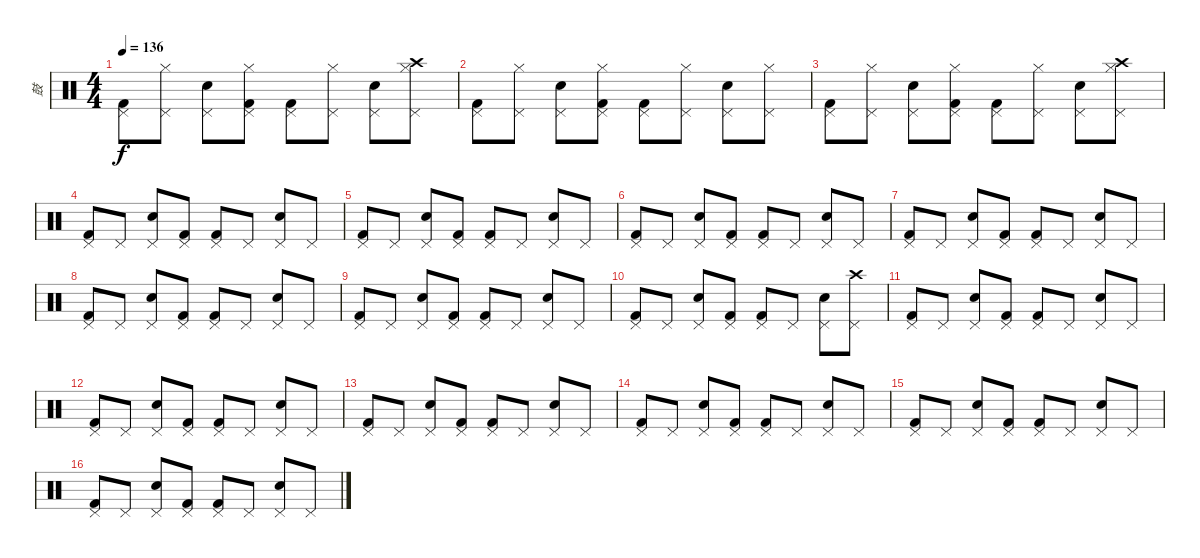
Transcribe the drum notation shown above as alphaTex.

\track ("鼓" "鼓") {instrument percussion}
\staff {score}
\articulation defaults
\ts (4 4)
\tempo 136
\clef neutral
\ks c
("Pedal Hi-Hat (hit)" "Kick (hit) 2").8{dy f} ("Pedal Hi-Hat (hit)" "Hi-Hat (closed)").8 ("Pedal Hi-Hat (hit)" "Electric Snare (hit)").8 ("Pedal Hi-Hat (hit)" "Hi-Hat (closed)" "Kick (hit) 2").8 ("Pedal Hi-Hat (hit)" "Kick (hit) 2").8 ("Pedal Hi-Hat (hit)" "Hi-Hat (closed)").8 ("Pedal Hi-Hat (hit)" "Electric Snare (hit)").8 ("Pedal Hi-Hat (hit)" "Hi-Hat (closed)" "Crash high (hit)").8 |
("Pedal Hi-Hat (hit)" "Kick (hit) 2").8 ("Pedal Hi-Hat (hit)" "Hi-Hat (closed)").8 ("Pedal Hi-Hat (hit)" "Electric Snare (hit)").8 ("Pedal Hi-Hat (hit)" "Hi-Hat (closed)" "Kick (hit) 2").8 ("Pedal Hi-Hat (hit)" "Kick (hit) 2").8 ("Pedal Hi-Hat (hit)" "Hi-Hat (closed)").8 ("Pedal Hi-Hat (hit)" "Electric Snare (hit)").8 ("Pedal Hi-Hat (hit)" "Hi-Hat (closed)").8 |
("Pedal Hi-Hat (hit)" "Kick (hit) 2").8 ("Pedal Hi-Hat (hit)" "Hi-Hat (closed)").8 ("Pedal Hi-Hat (hit)" "Electric Snare (hit)").8 ("Pedal Hi-Hat (hit)" "Hi-Hat (closed)" "Kick (hit) 2").8 ("Pedal Hi-Hat (hit)" "Kick (hit) 2").8 ("Pedal Hi-Hat (hit)" "Hi-Hat (closed)").8 ("Pedal Hi-Hat (hit)" "Electric Snare (hit)").8 ("Pedal Hi-Hat (hit)" "Hi-Hat (closed)" "Crash high (hit)").8 |
("Pedal Hi-Hat (hit)" "Kick (hit) 2").8 "Pedal Hi-Hat (hit)".8 ("Pedal Hi-Hat (hit)" "Electric Snare (hit)").8 ("Pedal Hi-Hat (hit)" "Kick (hit) 2").8 ("Pedal Hi-Hat (hit)" "Kick (hit) 2").8 "Pedal Hi-Hat (hit)".8 ("Pedal Hi-Hat (hit)" "Electric Snare (hit)").8 "Pedal Hi-Hat (hit)".8 |
("Pedal Hi-Hat (hit)" "Kick (hit) 2").8 "Pedal Hi-Hat (hit)".8 ("Pedal Hi-Hat (hit)" "Electric Snare (hit)").8 ("Pedal Hi-Hat (hit)" "Kick (hit) 2").8 ("Pedal Hi-Hat (hit)" "Kick (hit) 2").8 "Pedal Hi-Hat (hit)".8 ("Pedal Hi-Hat (hit)" "Electric Snare (hit)").8 "Pedal Hi-Hat (hit)".8 |
("Pedal Hi-Hat (hit)" "Kick (hit) 2").8 "Pedal Hi-Hat (hit)".8 ("Pedal Hi-Hat (hit)" "Electric Snare (hit)").8 ("Pedal Hi-Hat (hit)" "Kick (hit) 2").8 ("Pedal Hi-Hat (hit)" "Kick (hit) 2").8 "Pedal Hi-Hat (hit)".8 ("Pedal Hi-Hat (hit)" "Electric Snare (hit)").8 "Pedal Hi-Hat (hit)".8 |
("Pedal Hi-Hat (hit)" "Kick (hit) 2").8 "Pedal Hi-Hat (hit)".8 ("Pedal Hi-Hat (hit)" "Electric Snare (hit)").8 ("Pedal Hi-Hat (hit)" "Kick (hit) 2").8 ("Pedal Hi-Hat (hit)" "Kick (hit) 2").8 "Pedal Hi-Hat (hit)".8 ("Pedal Hi-Hat (hit)" "Electric Snare (hit)").8 "Pedal Hi-Hat (hit)".8 |
("Pedal Hi-Hat (hit)" "Kick (hit) 2").8 "Pedal Hi-Hat (hit)".8 ("Pedal Hi-Hat (hit)" "Electric Snare (hit)").8 ("Pedal Hi-Hat (hit)" "Kick (hit) 2").8 ("Pedal Hi-Hat (hit)" "Kick (hit) 2").8 "Pedal Hi-Hat (hit)".8 ("Pedal Hi-Hat (hit)" "Electric Snare (hit)").8 "Pedal Hi-Hat (hit)".8 |
("Pedal Hi-Hat (hit)" "Kick (hit) 2").8 "Pedal Hi-Hat (hit)".8 ("Pedal Hi-Hat (hit)" "Electric Snare (hit)").8 ("Pedal Hi-Hat (hit)" "Kick (hit) 2").8 ("Pedal Hi-Hat (hit)" "Kick (hit) 2").8 "Pedal Hi-Hat (hit)".8 ("Pedal Hi-Hat (hit)" "Electric Snare (hit)").8 "Pedal Hi-Hat (hit)".8 |
("Pedal Hi-Hat (hit)" "Kick (hit) 2").8 "Pedal Hi-Hat (hit)".8 ("Pedal Hi-Hat (hit)" "Electric Snare (hit)").8 ("Pedal Hi-Hat (hit)" "Kick (hit) 2").8 ("Pedal Hi-Hat (hit)" "Kick (hit) 2").8 "Pedal Hi-Hat (hit)".8 ("Pedal Hi-Hat (hit)" "Electric Snare (hit)").8 ("Pedal Hi-Hat (hit)" "Crash high (hit)").8 |
("Pedal Hi-Hat (hit)" "Kick (hit) 2").8 "Pedal Hi-Hat (hit)".8 ("Pedal Hi-Hat (hit)" "Electric Snare (hit)").8 ("Pedal Hi-Hat (hit)" "Kick (hit) 2").8 ("Pedal Hi-Hat (hit)" "Kick (hit) 2").8 "Pedal Hi-Hat (hit)".8 ("Pedal Hi-Hat (hit)" "Electric Snare (hit)").8 "Pedal Hi-Hat (hit)".8 |
("Pedal Hi-Hat (hit)" "Kick (hit) 2").8 "Pedal Hi-Hat (hit)".8 ("Pedal Hi-Hat (hit)" "Electric Snare (hit)").8 ("Pedal Hi-Hat (hit)" "Kick (hit) 2").8 ("Pedal Hi-Hat (hit)" "Kick (hit) 2").8 "Pedal Hi-Hat (hit)".8 ("Pedal Hi-Hat (hit)" "Electric Snare (hit)").8 "Pedal Hi-Hat (hit)".8 |
("Pedal Hi-Hat (hit)" "Kick (hit) 2").8 "Pedal Hi-Hat (hit)".8 ("Pedal Hi-Hat (hit)" "Electric Snare (hit)").8 ("Pedal Hi-Hat (hit)" "Kick (hit) 2").8 ("Pedal Hi-Hat (hit)" "Kick (hit) 2").8 "Pedal Hi-Hat (hit)".8 ("Pedal Hi-Hat (hit)" "Electric Snare (hit)").8 "Pedal Hi-Hat (hit)".8 |
("Pedal Hi-Hat (hit)" "Kick (hit) 2").8 "Pedal Hi-Hat (hit)".8 ("Pedal Hi-Hat (hit)" "Electric Snare (hit)").8 ("Pedal Hi-Hat (hit)" "Kick (hit) 2").8 ("Pedal Hi-Hat (hit)" "Kick (hit) 2").8 "Pedal Hi-Hat (hit)".8 ("Pedal Hi-Hat (hit)" "Electric Snare (hit)").8 "Pedal Hi-Hat (hit)".8 |
("Pedal Hi-Hat (hit)" "Kick (hit) 2").8 "Pedal Hi-Hat (hit)".8 ("Pedal Hi-Hat (hit)" "Electric Snare (hit)").8 ("Pedal Hi-Hat (hit)" "Kick (hit) 2").8 ("Pedal Hi-Hat (hit)" "Kick (hit) 2").8 "Pedal Hi-Hat (hit)".8 ("Pedal Hi-Hat (hit)" "Electric Snare (hit)").8 "Pedal Hi-Hat (hit)".8 |
("Pedal Hi-Hat (hit)" "Kick (hit) 2").8 "Pedal Hi-Hat (hit)".8 ("Pedal Hi-Hat (hit)" "Electric Snare (hit)").8 ("Pedal Hi-Hat (hit)" "Kick (hit) 2").8 ("Pedal Hi-Hat (hit)" "Kick (hit) 2").8 "Pedal Hi-Hat (hit)".8 ("Pedal Hi-Hat (hit)" "Electric Snare (hit)").8 "Pedal Hi-Hat (hit)".8
